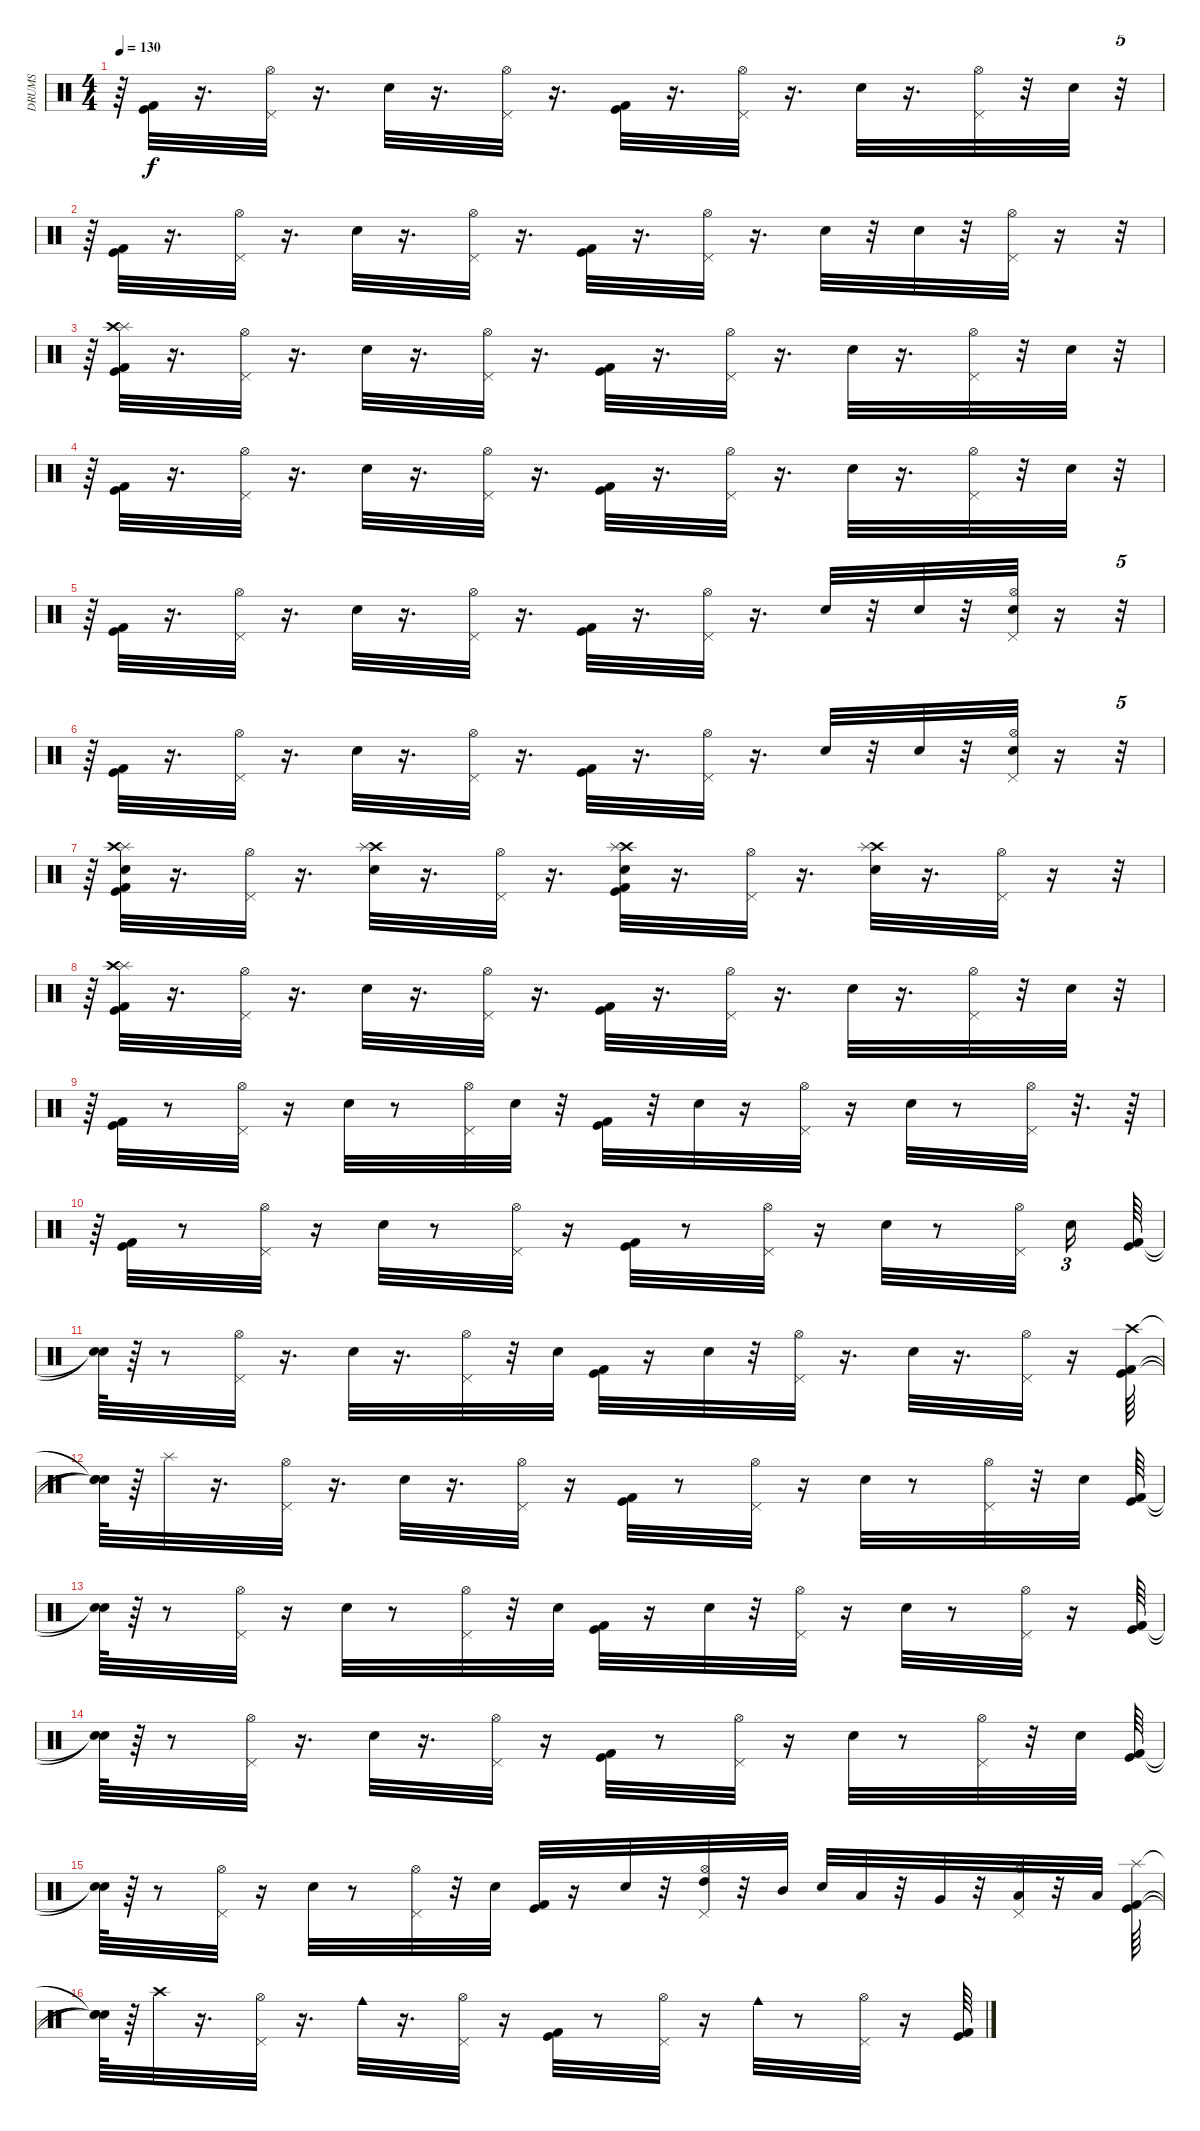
\track ("DRUMS" "DRUMS") {instrument percussion}
\staff {score}
\articulation defaults
\ts (4 4)
\tempo 130
\clef neutral
\ks c
r.64{dy f} ("Kick (hit)" "Kick (hit) 2").32 r.16{d} ("Pedal Hi-Hat (hit)" "Hi-Hat (open)").32 r.16{d} "Electric Snare (hit)".32 r.16{d} ("Pedal Hi-Hat (hit)" "Hi-Hat (open)").32 r.16{d} ("Kick (hit) 2" "Kick (hit)").32 r.16{d} ("Pedal Hi-Hat (hit)" "Hi-Hat (open)").32 r.16{d} "Electric Snare (hit)".32 r.16{d} ("Pedal Hi-Hat (hit)" "Hi-Hat (open)").32 r.32 "Electric Snare (hit)".32 r.32{tu (5 4)} |
r.64 ("Kick (hit)" "Kick (hit) 2").32 r.16{d} ("Pedal Hi-Hat (hit)" "Hi-Hat (open)").32 r.16{d} "Electric Snare (hit)".32 r.16{d} ("Pedal Hi-Hat (hit)" "Hi-Hat (open)").32 r.16{d} ("Kick (hit) 2" "Kick (hit)").32 r.16{d} ("Pedal Hi-Hat (hit)" "Hi-Hat (open)").32 r.16{d} "Electric Snare (hit)".32 r.32 "Electric Snare (hit)".32 r.32 ("Pedal Hi-Hat (hit)" "Hi-Hat (open)").32 r.16 r.32{tu (5 4)} |
r.64 ("Splash (hit)" "Kick (hit)" "Kick (hit) 2" "Crash high (hit)").32 r.16{d} ("Pedal Hi-Hat (hit)" "Hi-Hat (open)").32 r.16{d} "Electric Snare (hit)".32 r.16{d} ("Pedal Hi-Hat (hit)" "Hi-Hat (open)").32 r.16{d} ("Kick (hit) 2" "Kick (hit)").32 r.16{d} ("Pedal Hi-Hat (hit)" "Hi-Hat (open)").32 r.16{d} "Electric Snare (hit)".32 r.16{d} ("Pedal Hi-Hat (hit)" "Hi-Hat (open)").32 r.32 "Electric Snare (hit)".32 r.32{tu (5 4)} |
r.64 ("Kick (hit)" "Kick (hit) 2").32 r.16{d} ("Pedal Hi-Hat (hit)" "Hi-Hat (open)").32 r.16{d} "Electric Snare (hit)".32 r.16{d} ("Pedal Hi-Hat (hit)" "Hi-Hat (open)").32 r.16{d} ("Kick (hit) 2" "Kick (hit)").32 r.16{d} ("Pedal Hi-Hat (hit)" "Hi-Hat (open)").32 r.16{d} "Electric Snare (hit)".32 r.16{d} ("Pedal Hi-Hat (hit)" "Hi-Hat (open)").32 r.32 "Electric Snare (hit)".32 r.32{tu (5 4)} |
r.64 ("Kick (hit)" "Kick (hit) 2").32 r.16{d} ("Pedal Hi-Hat (hit)" "Hi-Hat (open)").32 r.16{d} "Electric Snare (hit)".32 r.16{d} ("Pedal Hi-Hat (hit)" "Hi-Hat (open)").32 r.16{d} ("Kick (hit) 2" "Kick (hit)").32 r.16{d} ("Pedal Hi-Hat (hit)" "Hi-Hat (open)").32 r.16{d} "Electric Snare (hit)".32 r.32 "Electric Snare (hit)".32 r.32 ("Pedal Hi-Hat (hit)" "Electric Snare (hit)" "Hi-Hat (open)").32 r.16 r.32{tu (5 4)} |
r.64 ("Kick (hit)" "Kick (hit) 2").32 r.16{d} ("Pedal Hi-Hat (hit)" "Hi-Hat (open)").32 r.16{d} "Electric Snare (hit)".32 r.16{d} ("Pedal Hi-Hat (hit)" "Hi-Hat (open)").32 r.16{d} ("Kick (hit) 2" "Kick (hit)").32 r.16{d} ("Pedal Hi-Hat (hit)" "Hi-Hat (open)").32 r.16{d} "Electric Snare (hit)".32 r.32 "Electric Snare (hit)".32 r.32 ("Pedal Hi-Hat (hit)" "Electric Snare (hit)" "Hi-Hat (open)").32 r.16 r.32{tu (5 4)} |
r.64 ("Electric Snare (hit)" "Splash (hit)" "Kick (hit)" "Kick (hit) 2" "Crash high (hit)").32 r.16{d} ("Pedal Hi-Hat (hit)" "Hi-Hat (open)").32 r.16{d} ("Electric Snare (hit)" "Crash high (hit)" "Splash (hit)").32 r.16{d} ("Pedal Hi-Hat (hit)" "Hi-Hat (open)").32 r.16{d} ("Electric Snare (hit)" "Kick (hit) 2" "Kick (hit)" "Crash high (hit)" "Splash (hit)").32 r.16{d} ("Pedal Hi-Hat (hit)" "Hi-Hat (open)").32 r.16{d} ("Electric Snare (hit)" "Crash high (hit)" "Splash (hit)").32 r.16{d} ("Pedal Hi-Hat (hit)" "Hi-Hat (open)").32 r.16 r.32{tu (5 4)} |
r.64 ("Kick (hit)" "Kick (hit) 2" "Splash (hit)" "Crash high (hit)").32 r.16{d} ("Pedal Hi-Hat (hit)" "Hi-Hat (open)").32 r.16{d} "Electric Snare (hit)".32 r.16{d} ("Pedal Hi-Hat (hit)" "Hi-Hat (open)").32 r.16{d} ("Kick (hit) 2" "Kick (hit)").32 r.16{d} ("Pedal Hi-Hat (hit)" "Hi-Hat (open)").32 r.16{d} "Electric Snare (hit)".32 r.16{d} ("Pedal Hi-Hat (hit)" "Hi-Hat (open)").32 r.32 "Electric Snare (hit)".32 r.32{tu (5 4)} |
r.64 ("Kick (hit)" "Kick (hit) 2").32 r.8 ("Pedal Hi-Hat (hit)" "Hi-Hat (open)").32 r.16 "Electric Snare (hit)".32 r.8 ("Pedal Hi-Hat (hit)" "Hi-Hat (open)").32 "Electric Snare (hit)".32 r.32 ("Kick (hit) 2" "Kick (hit)").32 r.32 "Electric Snare (hit)".32 r.16 ("Pedal Hi-Hat (hit)" "Hi-Hat (open)").32 r.16 "Electric Snare (hit)".32 r.8 ("Pedal Hi-Hat (hit)" "Hi-Hat (open)").32 r.32{d} r.64 |
r.64 ("Kick (hit)" "Kick (hit) 2").32 r.8 ("Pedal Hi-Hat (hit)" "Hi-Hat (open)").32 r.16 "Electric Snare (hit)".32 r.8 ("Pedal Hi-Hat (hit)" "Hi-Hat (open)").32 r.16 ("Kick (hit) 2" "Kick (hit)").32 r.8 ("Pedal Hi-Hat (hit)" "Hi-Hat (open)").32 r.16 "Electric Snare (hit)".32 r.8 ("Pedal Hi-Hat (hit)" "Hi-Hat (open)").32 "Electric Snare (hit)".16{tu (3 2)} ("Kick (hit)" "Kick (hit) 2").64 |
("Snare (hit)"{t} "Snare (hit)"{t}).64 r.64 r.8 ("Pedal Hi-Hat (hit)" "Hi-Hat (open)").32 r.16{d} "Electric Snare (hit)".32 r.16{d} ("Pedal Hi-Hat (hit)" "Hi-Hat (open)").32 r.32 "Electric Snare (hit)".32 ("Kick (hit) 2" "Kick (hit)").32 r.16 "Electric Snare (hit)".32 r.32 ("Pedal Hi-Hat (hit)" "Hi-Hat (open)").32 r.16{d} "Electric Snare (hit)".32 r.16{d} ("Pedal Hi-Hat (hit)" "Hi-Hat (open)").32 r.16 ("Crash high (hit)" "Kick (hit)" "Kick (hit) 2").64 |
("Snare (hit)"{t} "Snare (hit)"{t} "Snare (hit)"{t}).64 r.64 "Splash (hit)".32 r.16{d} ("Pedal Hi-Hat (hit)" "Hi-Hat (open)").32 r.16{d} "Electric Snare (hit)".32 r.16{d} ("Pedal Hi-Hat (hit)" "Hi-Hat (open)").32 r.16 ("Kick (hit) 2" "Kick (hit)").32 r.8 ("Pedal Hi-Hat (hit)" "Hi-Hat (open)").32 r.16 "Electric Snare (hit)".32 r.8 ("Pedal Hi-Hat (hit)" "Hi-Hat (open)").32 r.32 "Electric Snare (hit)".32 ("Kick (hit)" "Kick (hit) 2").64 |
("Snare (hit)"{t} "Snare (hit)"{t}).64 r.64 r.8 ("Pedal Hi-Hat (hit)" "Hi-Hat (open)").32 r.16 "Electric Snare (hit)".32 r.8 ("Pedal Hi-Hat (hit)" "Hi-Hat (open)").32 r.32 "Electric Snare (hit)".32 ("Kick (hit) 2" "Kick (hit)").32 r.16 "Electric Snare (hit)".32 r.32 ("Pedal Hi-Hat (hit)" "Hi-Hat (open)").32 r.16 "Electric Snare (hit)".32 r.8 ("Pedal Hi-Hat (hit)" "Hi-Hat (open)").32 r.16 ("Kick (hit)" "Kick (hit) 2").64 |
("Snare (hit)"{t} "Snare (hit)"{t}).64 r.64 r.8 ("Pedal Hi-Hat (hit)" "Hi-Hat (open)").32 r.16{d} "Electric Snare (hit)".32 r.16{d} ("Pedal Hi-Hat (hit)" "Hi-Hat (open)").32 r.16 ("Kick (hit) 2" "Kick (hit)").32 r.8 ("Pedal Hi-Hat (hit)" "Hi-Hat (open)").32 r.16 "Electric Snare (hit)".32 r.8 ("Pedal Hi-Hat (hit)" "Hi-Hat (open)").32 r.32 "Electric Snare (hit)".32 ("Kick (hit)" "Kick (hit) 2").64 |
("Snare (hit)"{t} "Snare (hit)"{t}).64 r.64 r.8 ("Pedal Hi-Hat (hit)" "Hi-Hat (open)").32 r.16 "Electric Snare (hit)".32 r.8 ("Pedal Hi-Hat (hit)" "Hi-Hat (open)").32 r.32 "Electric Snare (hit)".32 ("Kick (hit) 2" "Kick (hit)").32 r.16 "Electric Snare (hit)".32 r.32 ("Pedal Hi-Hat (hit)" "Hi-Hat (open)" "High Tom (hit)").32 r.32 "Mid Tom (hit)".32 "Electric Snare (hit)".32 "Low Tom (hit)".32 r.32 "Very Low Tom (hit)".32 r.32 ("Pedal Hi-Hat (hit)" "Hi-Hat (open)" "Low Floor Tom (hit)").32 r.32 "Low Floor Tom (hit)".32 ("Splash (hit)" "Kick (hit)" "Kick (hit) 2").64 |
("Snare (hit)"{t} "Snare (hit)"{t} "Snare (hit)"{t}).64 r.64 "Crash high (hit)".32 r.16{d} ("Pedal Hi-Hat (hit)" "Hi-Hat (open)").32 r.16{d} "Cowbell medium (hit)".32 r.16{d} ("Pedal Hi-Hat (hit)" "Hi-Hat (open)").32 r.16 ("Kick (hit) 2" "Kick (hit)").32 r.8 ("Pedal Hi-Hat (hit)" "Hi-Hat (open)").32 r.16 "Cowbell medium (hit)".32 r.8 ("Pedal Hi-Hat (hit)" "Hi-Hat (open)").32 r.16 ("Kick (hit)" "Kick (hit) 2").64
